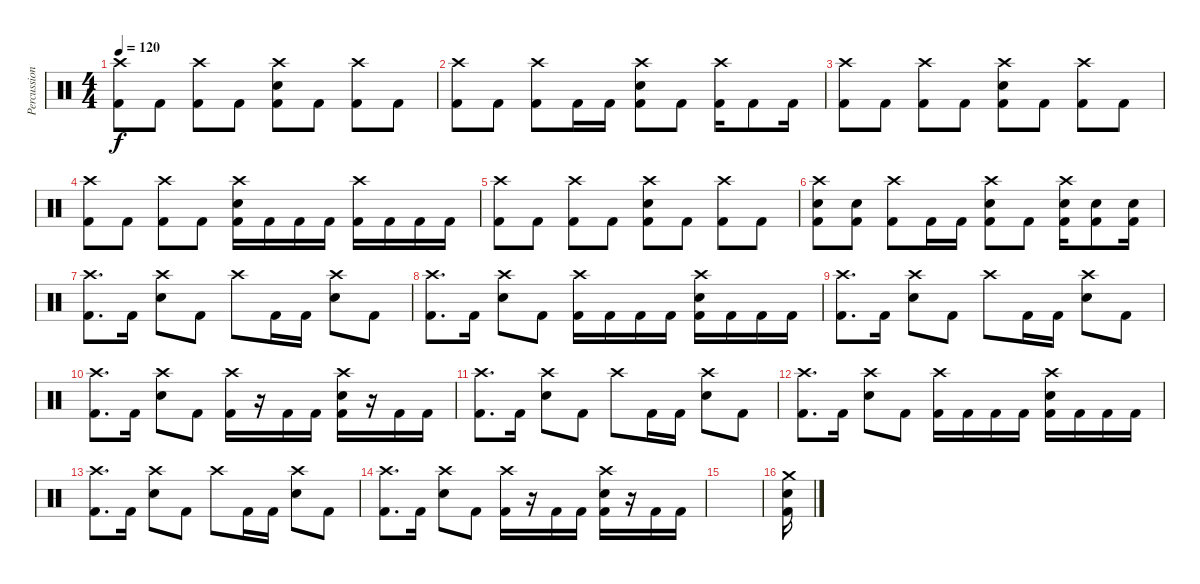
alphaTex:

\track ("Percussion" "Percussion") {instrument percussion}
\staff {score}
\articulation defaults
\ts (4 4)
\tempo 120
\clef neutral
\ks c
("Crash high (hit)" "Kick (hit) 2").8{dy f} "Kick (hit) 2".8 ("Crash high (hit)" "Kick (hit) 2").8 "Kick (hit) 2".8 ("Crash high (hit)" "Snare (hit) 2" "Kick (hit) 2").8 "Kick (hit) 2".8 ("Crash high (hit)" "Kick (hit) 2").8 "Kick (hit) 2".8 |
("Crash high (hit)" "Kick (hit) 2").8 "Kick (hit) 2".8 ("Crash high (hit)" "Kick (hit) 2").8 "Kick (hit) 2".16 "Kick (hit) 2".16 ("Crash high (hit)" "Snare (hit) 2" "Kick (hit) 2").8 "Kick (hit) 2".8 ("Crash high (hit)" "Kick (hit) 2").16 "Kick (hit) 2".8 "Kick (hit) 2".16 |
("Crash high (hit)" "Kick (hit) 2").8 "Kick (hit) 2".8 ("Crash high (hit)" "Kick (hit) 2").8 "Kick (hit) 2".8 ("Crash high (hit)" "Snare (hit) 2" "Kick (hit) 2").8 "Kick (hit) 2".8 ("Crash high (hit)" "Kick (hit) 2").8 "Kick (hit) 2".8 |
("Crash high (hit)" "Kick (hit) 2").8 "Kick (hit) 2".8 ("Crash high (hit)" "Kick (hit) 2").8 "Kick (hit) 2".8 ("Crash high (hit)" "Snare (hit) 2" "Kick (hit) 2").16 "Kick (hit) 2".16 "Kick (hit) 2".16 "Kick (hit) 2".16 ("Crash high (hit)" "Kick (hit) 2").16 "Kick (hit) 2".16 "Kick (hit) 2".16 "Kick (hit) 2".16 |
("Crash high (hit)" "Kick (hit) 2").8 "Kick (hit) 2".8 ("Crash high (hit)" "Kick (hit) 2").8 "Kick (hit) 2".8 ("Crash high (hit)" "Snare (hit) 2" "Kick (hit) 2").8 "Kick (hit) 2".8 ("Crash high (hit)" "Kick (hit) 2").8 "Kick (hit) 2".8 |
("Crash high (hit)" "Snare (hit) 2" "Kick (hit) 2").8 ("Snare (hit) 2" "Kick (hit) 2").8 ("Crash high (hit)" "Kick (hit) 2").8 "Kick (hit) 2".16 "Kick (hit) 2".16 ("Crash high (hit)" "Snare (hit) 2" "Kick (hit) 2").8 "Kick (hit) 2".8 ("Crash high (hit)" "Snare (hit) 2" "Kick (hit) 2").16 ("Snare (hit) 2" "Kick (hit) 2").8 ("Snare (hit) 2" "Kick (hit) 2").16 |
("Crash high (hit)" "Kick (hit) 2").8{d} "Kick (hit) 2".16 ("Crash high (hit)" "Snare (hit) 2").8 "Kick (hit) 2".8 "Crash high (hit)".8 "Kick (hit) 2".16 "Kick (hit) 2".16 ("Crash high (hit)" "Snare (hit) 2").8 "Kick (hit) 2".8 |
("Crash high (hit)" "Kick (hit) 2").8{d} "Kick (hit) 2".16 ("Crash high (hit)" "Snare (hit) 2").8 "Kick (hit) 2".8 ("Crash high (hit)" "Kick (hit) 2").16 "Kick (hit) 2".16 "Kick (hit) 2".16 "Kick (hit) 2".16 ("Crash high (hit)" "Snare (hit) 2" "Kick (hit) 2").16 "Kick (hit) 2".16 "Kick (hit) 2".16 "Kick (hit) 2".16 |
("Crash high (hit)" "Kick (hit) 2").8{d} "Kick (hit) 2".16 ("Crash high (hit)" "Snare (hit) 2").8 "Kick (hit) 2".8 "Crash high (hit)".8 "Kick (hit) 2".16 "Kick (hit) 2".16 ("Crash high (hit)" "Snare (hit) 2").8 "Kick (hit) 2".8 |
("Crash high (hit)" "Kick (hit) 2").8{d} "Kick (hit) 2".16 ("Crash high (hit)" "Snare (hit) 2").8 "Kick (hit) 2".8 ("Crash high (hit)" "Kick (hit) 2").16 r.16 "Kick (hit) 2".16 "Kick (hit) 2".16 ("Crash high (hit)" "Snare (hit) 2" "Kick (hit) 2").16 r.16 "Kick (hit) 2".16 "Kick (hit) 2".16 |
("Crash high (hit)" "Kick (hit) 2").8{d} "Kick (hit) 2".16 ("Crash high (hit)" "Snare (hit) 2").8 "Kick (hit) 2".8 "Crash high (hit)".8 "Kick (hit) 2".16 "Kick (hit) 2".16 ("Crash high (hit)" "Snare (hit) 2").8 "Kick (hit) 2".8 |
("Crash high (hit)" "Kick (hit) 2").8{d} "Kick (hit) 2".16 ("Crash high (hit)" "Snare (hit) 2").8 "Kick (hit) 2".8 ("Crash high (hit)" "Kick (hit) 2").16 "Kick (hit) 2".16 "Kick (hit) 2".16 "Kick (hit) 2".16 ("Crash high (hit)" "Snare (hit) 2" "Kick (hit) 2").16 "Kick (hit) 2".16 "Kick (hit) 2".16 "Kick (hit) 2".16 |
("Crash high (hit)" "Kick (hit) 2").8{d} "Kick (hit) 2".16 ("Crash high (hit)" "Snare (hit) 2").8 "Kick (hit) 2".8 "Crash high (hit)".8 "Kick (hit) 2".16 "Kick (hit) 2".16 ("Crash high (hit)" "Snare (hit) 2").8 "Kick (hit) 2".8 |
("Crash high (hit)" "Kick (hit) 2").8{d} "Kick (hit) 2".16 ("Crash high (hit)" "Snare (hit) 2").8 "Kick (hit) 2".8 ("Crash high (hit)" "Kick (hit) 2").16 r.16 "Kick (hit) 2".16 "Kick (hit) 2".16 ("Crash high (hit)" "Snare (hit) 2" "Kick (hit) 2").16 r.16 "Kick (hit) 2".16 "Kick (hit) 2".16 |
|
("Crash medium (hit)" "Snare (hit) 2" "Kick (hit) 2").16
